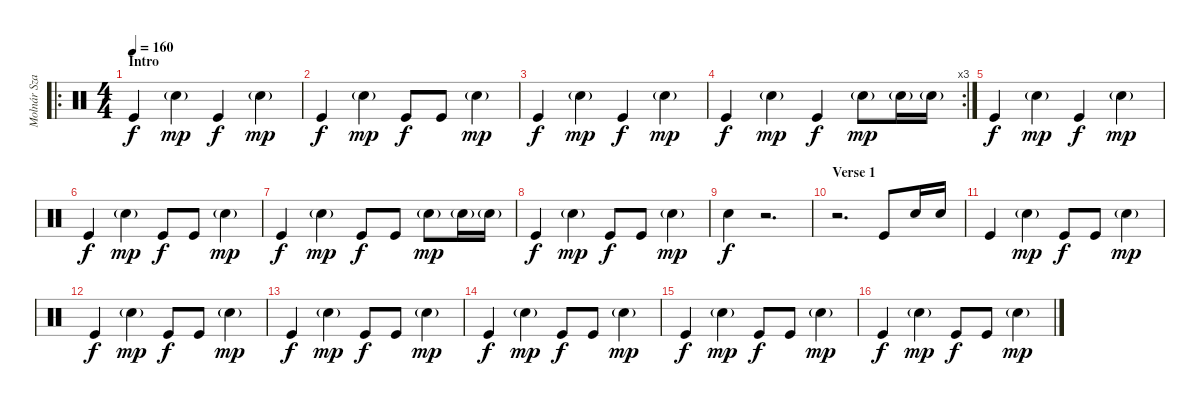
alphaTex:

\track ("Molnár Szabolcs" "Molnár Sza") {instrument percussion}
\staff {score}
\articulation defaults
\ro
\ts (4 4)
\section ("" "Intro")
\tempo 160
\clef neutral
\ks c "Kick (hit)".4{dy f} "Snare (hit) 2"{g}.4{dy mp} "Kick (hit)".4{dy f} "Snare (hit) 2"{g}.4{dy mp}
|
"Kick (hit)".4{dy f} "Snare (hit) 2"{g}.4{dy mp} "Kick (hit)".8{dy f} "Kick (hit)".8 "Snare (hit) 2"{g}.4{dy mp} |
"Kick (hit)".4{dy f} "Snare (hit) 2"{g}.4{dy mp} "Kick (hit)".4{dy f} "Snare (hit) 2"{g}.4{dy mp} |
\rc 3 "Kick (hit)".4{dy f} "Snare (hit) 2"{g}.4{dy mp} "Kick (hit)".4{dy f} "Snare (hit) 2"{g}.8{dy mp} "Snare (hit) 2"{g}.16 "Snare (hit) 2"{g}.16
|
"Kick (hit)".4{dy f} "Snare (hit) 2"{g}.4{dy mp} "Kick (hit)".4{dy f} "Snare (hit) 2"{g}.4{dy mp} |
"Kick (hit)".4{dy f} "Snare (hit) 2"{g}.4{dy mp} "Kick (hit)".8{dy f} "Kick (hit)".8 "Snare (hit) 2"{g}.4{dy mp} |
"Kick (hit)".4{dy f} "Snare (hit) 2"{g}.4{dy mp} "Kick (hit)".8{dy f} "Kick (hit)".8 "Snare (hit) 2"{g}.8{dy mp} "Snare (hit) 2"{g}.16 "Snare (hit) 2"{g}.16 |
"Kick (hit)".4{dy f} "Snare (hit) 2"{g}.4{dy mp} "Kick (hit)".8{dy f} "Kick (hit)".8 "Snare (hit) 2"{g}.4{dy mp} |
"Snare (hit) 2".4{dy f} r.2{d} |
\section ("" "Verse 1")
r.2{d} "Kick (hit)"{x}.8 "Snare (hit) 2".16 "Snare (hit) 2".16 |
"Kick (hit)".4 "Snare (hit) 2"{g}.4{dy mp} "Kick (hit)".8{dy f} "Kick (hit)".8 "Snare (hit) 2"{g}.4{dy mp} |
"Kick (hit)".4{dy f} "Snare (hit) 2"{g}.4{dy mp} "Kick (hit)".8{dy f} "Kick (hit)".8 "Snare (hit) 2"{g}.4{dy mp} |
"Kick (hit)".4{dy f} "Snare (hit) 2"{g}.4{dy mp} "Kick (hit)".8{dy f} "Kick (hit)".8 "Snare (hit) 2"{g}.4{dy mp} |
"Kick (hit)".4{dy f} "Snare (hit) 2"{g}.4{dy mp} "Kick (hit)".8{dy f} "Kick (hit)".8 "Snare (hit) 2"{g}.4{dy mp} |
"Kick (hit)".4{dy f} "Snare (hit) 2"{g}.4{dy mp} "Kick (hit)".8{dy f} "Kick (hit)".8 "Snare (hit) 2"{g}.4{dy mp} |
"Kick (hit)".4{dy f} "Snare (hit) 2"{g}.4{dy mp} "Kick (hit)".8{dy f} "Kick (hit)".8 "Snare (hit) 2"{g}.4{dy mp}
